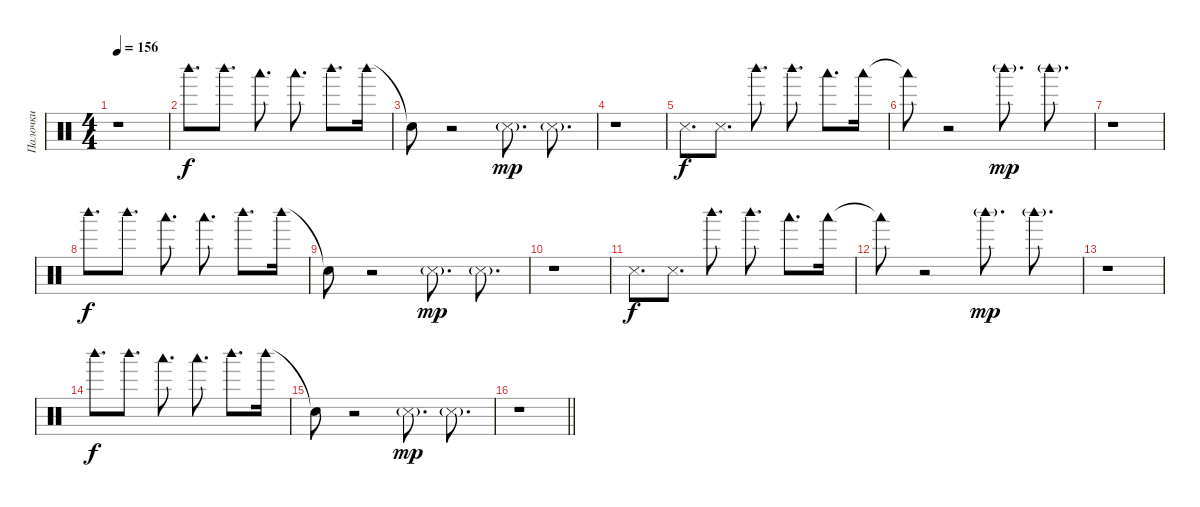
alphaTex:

\track ("Палочки" "Палочки") {instrument percussion}
\staff {score}
\articulation defaults
\ts (4 4)
\tempo 156
\clef neutral
\ks c
r.1{dy mp} |
"Woodblock high (hit)".8{d dy f} "Woodblock high (hit)".8{d} "Woodblock low (hit)".8{d} "Woodblock low (hit)".8{d} "Woodblock high (hit)".8{d} "Woodblock high (hit)".16 |
"Snare (hit)"{t}.8 r.2 "Metronome (hit)"{g}.8{d dy mp} "Metronome (hit)"{g}.8{d} |
r.1 |
"Metronome (hit)".8{d dy f} "Metronome (hit)".8{d} "Woodblock high (hit)".8{d} "Woodblock high (hit)".8{d} "Woodblock low (hit)".8{d} "Woodblock low (hit)".16 |
"Woodblock low (hit)"{t}.8 r.2 "Woodblock high (hit)"{g}.8{d dy mp} "Woodblock high (hit)"{g}.8{d} |
r.1 |
"Woodblock high (hit)".8{d dy f} "Woodblock high (hit)".8{d} "Woodblock low (hit)".8{d} "Woodblock low (hit)".8{d} "Woodblock high (hit)".8{d} "Woodblock high (hit)".16 |
"Snare (hit)"{t}.8 r.2 "Metronome (hit)"{g}.8{d dy mp} "Metronome (hit)"{g}.8{d} |
r.1 |
"Metronome (hit)".8{d dy f} "Metronome (hit)".8{d} "Woodblock high (hit)".8{d} "Woodblock high (hit)".8{d} "Woodblock low (hit)".8{d} "Woodblock low (hit)".16 |
"Woodblock low (hit)"{t}.8 r.2 "Woodblock high (hit)"{g}.8{d dy mp} "Woodblock high (hit)"{g}.8{d} |
r.1 |
"Woodblock high (hit)".8{d dy f} "Woodblock high (hit)".8{d} "Woodblock low (hit)".8{d} "Woodblock low (hit)".8{d} "Woodblock high (hit)".8{d} "Woodblock high (hit)".16 |
"Snare (hit)"{t}.8 r.2 "Metronome (hit)"{g}.8{d dy mp} "Metronome (hit)"{g}.8{d} |
\barLineRight lightlight
r.1
